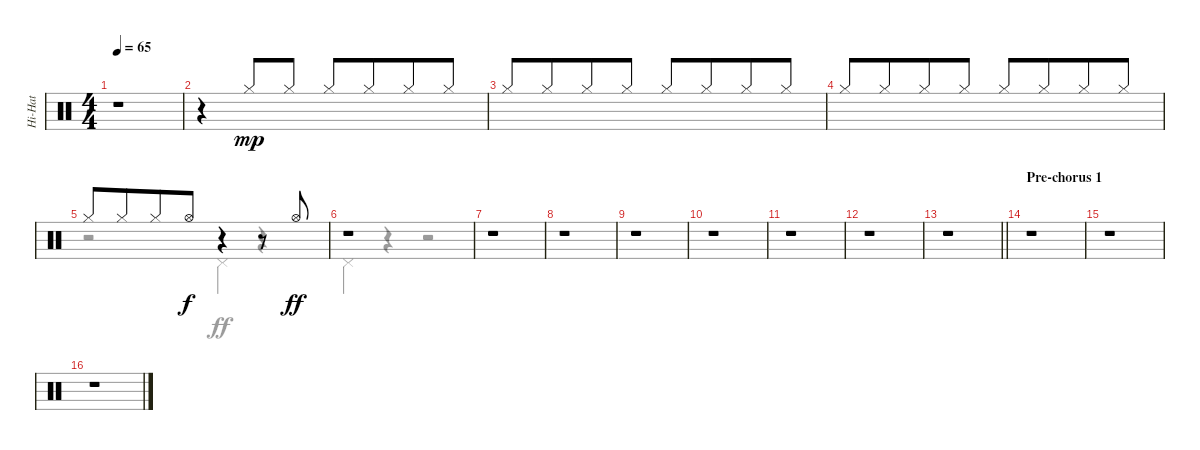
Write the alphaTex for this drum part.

\track ("Hi-Hat" "Hi-Hat") {instrument percussion}
\staff {score}
\articulation defaults
\voice
\ts (4 4)
\tempo 65
\clef neutral
\ks c
r.1{dy f} |
r.4{beam Up beam merge} "Hi-Hat (closed)".8{dy mp beam Up} "Hi-Hat (closed)".8{beam Up} "Hi-Hat (closed)".8{beam Up} "Hi-Hat (closed)".8{beam Up beam merge} "Hi-Hat (closed)".8{beam Up} "Hi-Hat (closed)".8{beam Up} |
"Hi-Hat (closed)".8{beam Up} "Hi-Hat (closed)".8{beam Up beam merge} "Hi-Hat (closed)".8{beam Up} "Hi-Hat (closed)".8{beam Up} "Hi-Hat (closed)".8{beam Up} "Hi-Hat (closed)".8{beam Up beam merge} "Hi-Hat (closed)".8{beam Up} "Hi-Hat (closed)".8{beam Up} |
"Hi-Hat (closed)".8{beam Up} "Hi-Hat (closed)".8{beam Up beam merge} "Hi-Hat (closed)".8{beam Up} "Hi-Hat (closed)".8{beam Up} "Hi-Hat (closed)".8{beam Up} "Hi-Hat (closed)".8{beam Up beam merge} "Hi-Hat (closed)".8{beam Up} "Hi-Hat (closed)".8{beam Up} |
"Hi-Hat (closed)".8 "Hi-Hat (closed)".8{beam merge} "Hi-Hat (closed)".8 "Hi-Hat (open)".8{dy f} r.4 r.8 "Hi-Hat (open)".8{dy ff} |
r.1 |
r.1 |
r.1 |
r.1 |
r.1 |
r.1 |
r.1 |
\barLineRight lightlight
r.1 |
\section ("" "Pre-chorus 1")
r.1 |
r.1 |
r.1
\voice
\clef neutral
\ottava regular
\simile none
\ks c
|
|
|
|
r.2 "Pedal Hi-Hat (hit)".4 r.4 |
"Pedal Hi-Hat (hit)".4 r.4 r.2 |
|
|
|
|
|
|
\barLineRight lightlight
|
|
|
